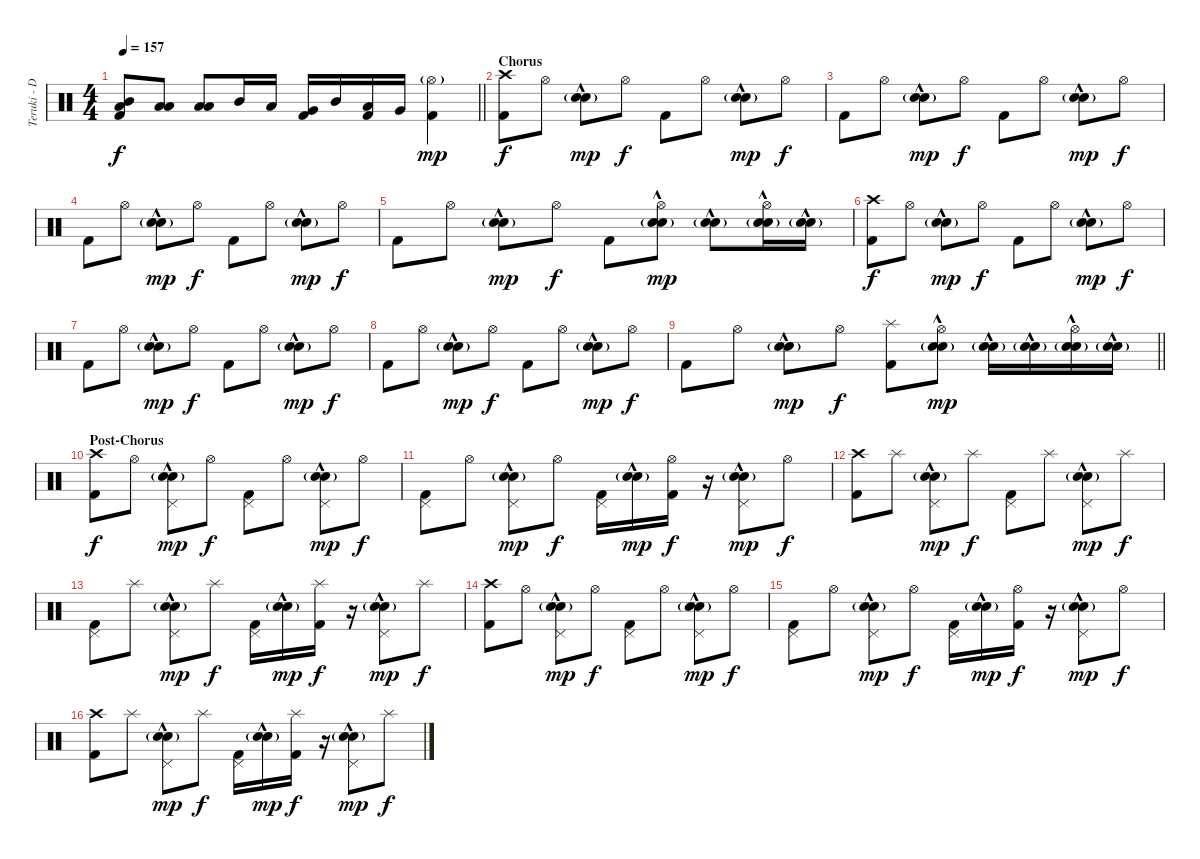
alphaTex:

\track ("Teruki - Drums" "Teruki - D") {instrument percussion}
\staff {score}
\articulation defaults
\ts (4 4)
\tempo 157
\clef neutral
\barLineRight lightlight
\ks c
("Mid Tom (hit)" "Low Tom (hit)" "Kick (hit) 2").8{dy f} ("Low Tom (hit)" "Low Floor Tom (hit)").8 ("Low Tom (hit)" "Low Floor Tom (hit)").8 "Mid Tom (hit)".16 "Low Tom (hit)".16 ("Very Low Tom (hit)" "Kick (hit) 2").16 "Mid Tom (hit)".16 ("Low Tom (hit)" "Kick (hit) 2").16 "Very Low Tom (hit)".16 ("Hi-Hat (open)"{g} "Kick (hit) 2").4{dy mp} |
\section ("" "Chorus")
("Crash high (hit)" "Kick (hit) 2").8{dy f} "Hi-Hat (open)".8 ("Electric Snare (hit)"{hac} "Snare (hit) 2"{g}).8{dy mp} "Hi-Hat (open)".8{dy f} "Kick (hit) 2".8 "Hi-Hat (open)".8 ("Electric Snare (hit)"{hac} "Snare (hit) 2"{g}).8{dy mp} "Hi-Hat (open)".8{dy f} |
"Kick (hit) 2".8 "Hi-Hat (open)".8 ("Electric Snare (hit)"{hac} "Snare (hit) 2"{g}).8{dy mp} "Hi-Hat (open)".8{dy f} "Kick (hit) 2".8 "Hi-Hat (open)".8 ("Electric Snare (hit)"{hac} "Snare (hit) 2"{g}).8{dy mp} "Hi-Hat (open)".8{dy f} |
"Kick (hit) 2".8 "Hi-Hat (open)".8 ("Electric Snare (hit)"{hac} "Snare (hit) 2"{g}).8{dy mp} "Hi-Hat (open)".8{dy f} "Kick (hit) 2".8 "Hi-Hat (open)".8 ("Electric Snare (hit)"{hac} "Snare (hit) 2"{g}).8{dy mp} "Hi-Hat (open)".8{dy f} |
"Kick (hit) 2".8 "Hi-Hat (open)".8 ("Electric Snare (hit)"{hac} "Snare (hit) 2"{g}).8{dy mp} "Hi-Hat (open)".8{dy f} "Kick (hit) 2".8 ("Hi-Hat (open)" "Electric Snare (hit)"{hac} "Snare (hit) 2"{g}).8{dy mp} ("Electric Snare (hit)"{hac} "Snare (hit) 2"{g}).8 ("Hi-Hat (open)" "Electric Snare (hit)"{hac} "Snare (hit) 2"{g}).16 ("Electric Snare (hit)"{hac} "Snare (hit) 2"{g}).16 |
("Crash high (hit)" "Kick (hit) 2").8{dy f} "Hi-Hat (open)".8 ("Electric Snare (hit)"{hac} "Snare (hit) 2"{g}).8{dy mp} "Hi-Hat (open)".8{dy f} "Kick (hit) 2".8 "Hi-Hat (open)".8 ("Electric Snare (hit)"{hac} "Snare (hit) 2"{g}).8{dy mp} "Hi-Hat (open)".8{dy f} |
"Kick (hit) 2".8 "Hi-Hat (open)".8 ("Electric Snare (hit)"{hac} "Snare (hit) 2"{g}).8{dy mp} "Hi-Hat (open)".8{dy f} "Kick (hit) 2".8 "Hi-Hat (open)".8 ("Electric Snare (hit)"{hac} "Snare (hit) 2"{g}).8{dy mp} "Hi-Hat (open)".8{dy f} |
"Kick (hit) 2".8 "Hi-Hat (open)".8 ("Electric Snare (hit)"{hac} "Snare (hit) 2"{g}).8{dy mp} "Hi-Hat (open)".8{dy f} "Kick (hit) 2".8 "Hi-Hat (open)".8 ("Electric Snare (hit)"{hac} "Snare (hit) 2"{g}).8{dy mp} "Hi-Hat (open)".8{dy f} |
\barLineRight lightlight "Kick (hit) 2".8 "Hi-Hat (open)".8
("Electric Snare (hit)"{hac} "Snare (hit) 2"{g}).8{dy mp} "Hi-Hat (open)".8{dy f} ("Splash (hit)" "Kick (hit) 2").8 ("Hi-Hat (open)" "Electric Snare (hit)"{hac} "Snare (hit) 2"{g}).8{dy mp} ("Electric Snare (hit)"{hac} "Snare (hit) 2"{g}).16 ("Electric Snare (hit)"{hac} "Snare (hit) 2"{g}).16 ("Hi-Hat (open)" "Electric Snare (hit)"{hac} "Snare (hit) 2"{g}).16 ("Electric Snare (hit)"{hac} "Snare (hit) 2"{g}).16 |
\section ("" "Post-Chorus")
("Crash high (hit)" "Kick (hit) 2").8{dy f} "Hi-Hat (open)".8 ("Pedal Hi-Hat (hit)" "Electric Snare (hit)"{hac} "Snare (hit) 2"{g}).8{dy mp} "Hi-Hat (open)".8{dy f} ("Pedal Hi-Hat (hit)" "Kick (hit) 2").8 "Hi-Hat (open)".8 ("Pedal Hi-Hat (hit)" "Electric Snare (hit)"{hac} "Snare (hit) 2"{g}).8{dy mp} "Hi-Hat (open)".8{dy f} |
("Pedal Hi-Hat (hit)" "Kick (hit) 2").8 "Hi-Hat (open)".8 ("Pedal Hi-Hat (hit)" "Electric Snare (hit)"{hac} "Snare (hit) 2"{g}).8{dy mp} "Hi-Hat (open)".8{dy f} ("Pedal Hi-Hat (hit)" "Kick (hit) 2").16 ("Electric Snare (hit)"{hac} "Snare (hit) 2"{g}).16{dy mp} ("Hi-Hat (open)" "Kick (hit) 2").16{dy f} r.16 ("Pedal Hi-Hat (hit)" "Electric Snare (hit)"{hac} "Snare (hit) 2"{g}).8{dy mp} "Hi-Hat (open)".8{dy f} |
("Crash high (hit)" "Kick (hit) 2").8 "Splash (hit)".8 ("Pedal Hi-Hat (hit)" "Electric Snare (hit)"{hac} "Snare (hit) 2"{g}).8{dy mp} "Splash (hit)".8{dy f} ("Pedal Hi-Hat (hit)" "Kick (hit) 2").8 "Splash (hit)".8 ("Pedal Hi-Hat (hit)" "Electric Snare (hit)"{hac} "Snare (hit) 2"{g}).8{dy mp} "Splash (hit)".8{dy f} |
("Pedal Hi-Hat (hit)" "Kick (hit) 2").8 "Splash (hit)".8 ("Pedal Hi-Hat (hit)" "Electric Snare (hit)"{hac} "Snare (hit) 2"{g}).8{dy mp} "Splash (hit)".8{dy f} ("Pedal Hi-Hat (hit)" "Kick (hit) 2").16 ("Electric Snare (hit)"{hac} "Snare (hit) 2"{g}).16{dy mp} ("Splash (hit)" "Kick (hit) 2").16{dy f} r.16 ("Pedal Hi-Hat (hit)" "Electric Snare (hit)"{hac} "Snare (hit) 2"{g}).8{dy mp} "Splash (hit)".8{dy f} |
("Crash high (hit)" "Kick (hit) 2").8 "Hi-Hat (open)".8 ("Pedal Hi-Hat (hit)" "Electric Snare (hit)"{hac} "Snare (hit) 2"{g}).8{dy mp} "Hi-Hat (open)".8{dy f} ("Pedal Hi-Hat (hit)" "Kick (hit) 2").8 "Hi-Hat (open)".8 ("Pedal Hi-Hat (hit)" "Electric Snare (hit)"{hac} "Snare (hit) 2"{g}).8{dy mp} "Hi-Hat (open)".8{dy f} |
("Pedal Hi-Hat (hit)" "Kick (hit) 2").8 "Hi-Hat (open)".8 ("Pedal Hi-Hat (hit)" "Electric Snare (hit)"{hac} "Snare (hit) 2"{g}).8{dy mp} "Hi-Hat (open)".8{dy f} ("Pedal Hi-Hat (hit)" "Kick (hit) 2").16 ("Electric Snare (hit)"{hac} "Snare (hit) 2"{g}).16{dy mp} ("Hi-Hat (open)" "Kick (hit) 2").16{dy f} r.16 ("Pedal Hi-Hat (hit)" "Electric Snare (hit)"{hac} "Snare (hit) 2"{g}).8{dy mp} "Hi-Hat (open)".8{dy f} |
("Crash high (hit)" "Kick (hit) 2").8 "Splash (hit)".8 ("Pedal Hi-Hat (hit)" "Electric Snare (hit)"{hac} "Snare (hit) 2"{g}).8{dy mp} "Splash (hit)".8{dy f} ("Pedal Hi-Hat (hit)" "Kick (hit) 2").16 ("Electric Snare (hit)"{hac} "Snare (hit) 2"{g}).16{dy mp} ("Splash (hit)" "Kick (hit) 2").16{dy f} r.16 ("Pedal Hi-Hat (hit)" "Electric Snare (hit)"{hac} "Snare (hit) 2"{g}).8{dy mp} "Splash (hit)".8{dy f}
